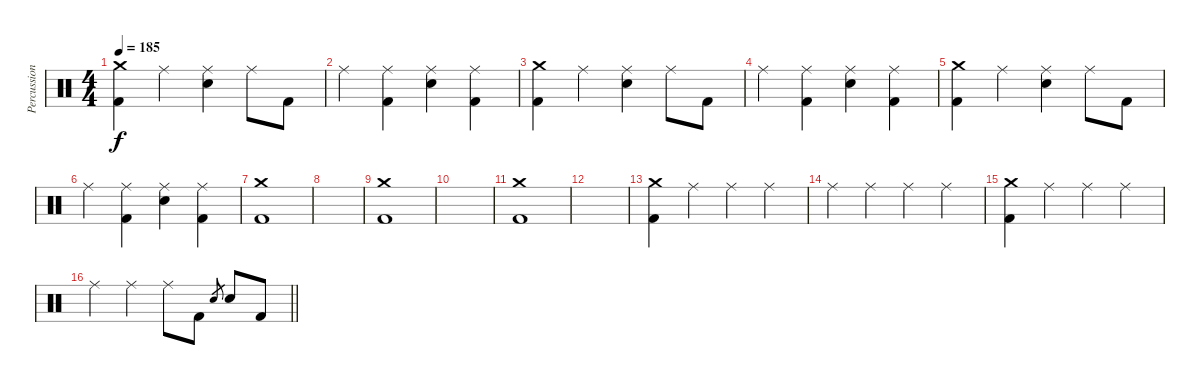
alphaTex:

\track ("Percussions" "Percussion") {instrument percussion}
\staff {score}
\articulation defaults
\ts (4 4)
\tempo 185
\clef neutral
\ks c
("Crash medium (hit)" "Kick (hit) 2").4{dy f} "Ride (middle)".4 ("Ride (middle)" "Electric Snare (hit)").4 "Ride (middle)".8 "Kick (hit) 2".8 |
"Ride (middle)".4 ("Ride (middle)" "Kick (hit) 2").4 ("Ride (middle)" "Electric Snare (hit)").4 ("Ride (middle)" "Kick (hit) 2").4 |
("Crash medium (hit)" "Kick (hit) 2").4 "Ride (middle)".4 ("Ride (middle)" "Electric Snare (hit)").4 "Ride (middle)".8 "Kick (hit) 2".8 |
"Ride (middle)".4 ("Ride (middle)" "Kick (hit) 2").4 ("Ride (middle)" "Electric Snare (hit)").4 ("Ride (middle)" "Kick (hit) 2").4 |
("Crash medium (hit)" "Kick (hit) 2").4 "Ride (middle)".4 ("Ride (middle)" "Electric Snare (hit)").4 "Ride (middle)".8 "Kick (hit) 2".8 |
"Ride (middle)".4 ("Ride (middle)" "Kick (hit) 2").4 ("Ride (middle)" "Electric Snare (hit)").4 ("Ride (middle)" "Kick (hit) 2").4 |
("Crash medium (hit)" "Kick (hit) 2").1 |
|
("Crash medium (hit)" "Kick (hit) 2").1 |
|
("Crash medium (hit)" "Kick (hit) 2").1 |
|
("Crash medium (hit)" "Kick (hit) 2").4 "Ride (middle)".4 "Ride (middle)".4 "Ride (middle)".4 |
"Ride (middle)".4 "Ride (middle)".4 "Ride (middle)".4 "Ride (middle)".4 |
("Crash medium (hit)" "Kick (hit) 2").4 "Ride (middle)".4 "Ride (middle)".4 "Ride (middle)".4 |
\barLineRight lightlight "Ride (middle)".4 "Ride (middle)".4 "Ride (middle)".8 "Kick (hit) 2".8 "Electric Snare (hit)".8{gr} "Electric Snare (hit)".8 "Kick (hit) 2".8
